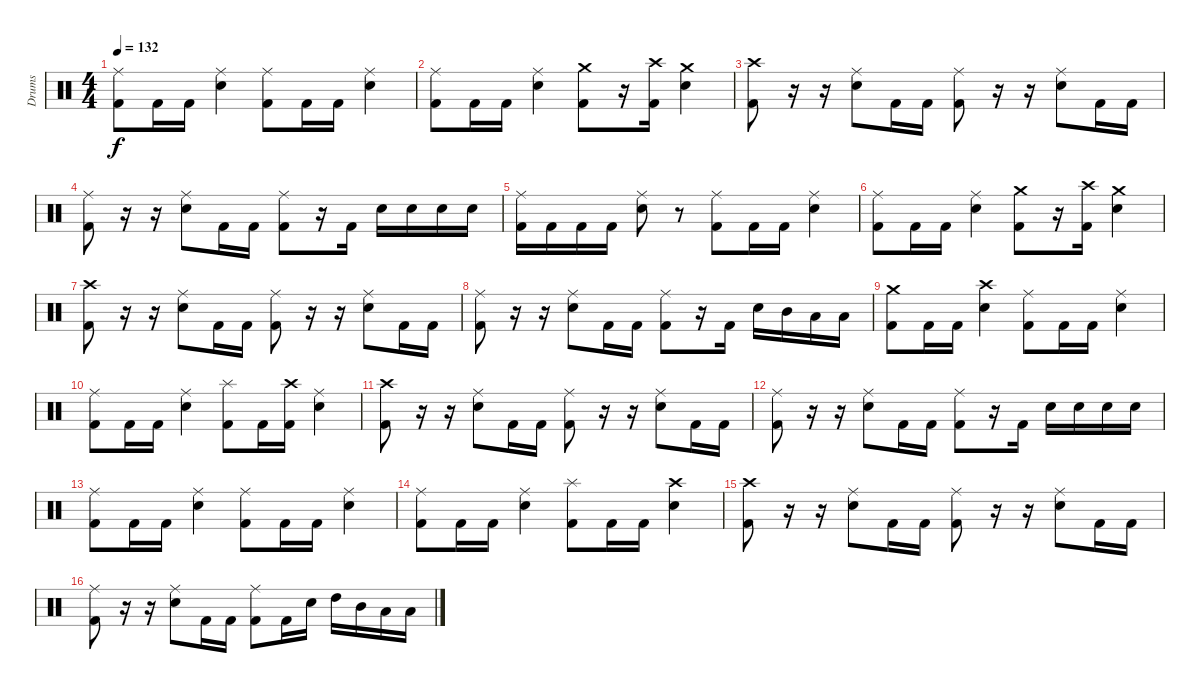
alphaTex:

\track ("Drums" "Drums") {instrument percussion}
\staff {score}
\articulation defaults
\ts (4 4)
\tempo 132
\clef neutral
\ks c
("Ride (middle)" "Kick (hit) 2").8{dy f} "Kick (hit) 2".16 "Kick (hit) 2".16 ("Ride (middle)" "Electric Snare (hit)").4 ("Ride (middle)" "Kick (hit) 2").8 "Kick (hit) 2".16 "Kick (hit) 2".16 ("Ride (middle)" "Electric Snare (hit)").4 |
("Ride (middle)" "Kick (hit) 2").8 "Kick (hit) 2".16 "Kick (hit) 2".16 ("Ride (middle)" "Electric Snare (hit)").4 ("Crash medium (hit)" "Kick (hit) 2").8 r.16 ("Crash high (hit)" "Kick (hit) 2").16 ("Crash medium (hit)" "Electric Snare (hit)").4 |
("Crash high (hit)" "Kick (hit) 2").8 r.16 r.16 ("Ride (middle)" "Electric Snare (hit)").8 "Kick (hit) 2".16 "Kick (hit) 2".16 ("Ride (middle)" "Kick (hit) 2").8 r.16 r.16 ("Ride (middle)" "Electric Snare (hit)").8 "Kick (hit) 2".16 "Kick (hit) 2".16 |
("Ride (middle)" "Kick (hit) 2").8 r.16 r.16 ("Ride (middle)" "Electric Snare (hit)").8 "Kick (hit) 2".16 "Kick (hit) 2".16 ("Ride (middle)" "Kick (hit) 2").8 r.16 "Kick (hit) 2".16 "Electric Snare (hit)".16 "Electric Snare (hit)".16 "Electric Snare (hit)".16 "Electric Snare (hit)".16 |
("Ride (middle)" "Kick (hit) 2").16 "Kick (hit) 2".16 "Kick (hit) 2".16 "Kick (hit) 2".16 ("Ride (middle)" "Electric Snare (hit)").8 r.8 ("Ride (middle)" "Kick (hit) 2").8 "Kick (hit) 2".16 "Kick (hit) 2".16 ("Ride (middle)" "Electric Snare (hit)").4 |
("Ride (middle)" "Kick (hit) 2").8 "Kick (hit) 2".16 "Kick (hit) 2".16 ("Ride (middle)" "Electric Snare (hit)").4 ("Crash medium (hit)" "Kick (hit) 2").8 r.16 ("Crash high (hit)" "Kick (hit) 2").16 ("Crash medium (hit)" "Electric Snare (hit)").4 |
("Crash high (hit)" "Kick (hit) 2").8 r.16 r.16 ("Ride (middle)" "Electric Snare (hit)").8 "Kick (hit) 2".16 "Kick (hit) 2".16 ("Ride (middle)" "Kick (hit) 2").8 r.16 r.16 ("Ride (middle)" "Electric Snare (hit)").8 "Kick (hit) 2".16 "Kick (hit) 2".16 |
("Ride (middle)" "Kick (hit) 2").8 r.16 r.16 ("Ride (middle)" "Electric Snare (hit)").8 "Kick (hit) 2".16 "Kick (hit) 2".16 ("Ride (middle)" "Kick (hit) 2").8 r.16 "Kick (hit) 2".16 "Electric Snare (hit)".16 "Mid Tom (hit)".16 "Low Tom (hit)".16 "Low Floor Tom (hit)".16 |
("Crash medium (hit)" "Kick (hit) 2").8 "Kick (hit) 2".16 "Kick (hit) 2".16 ("Crash high (hit)" "Electric Snare (hit)").4 ("Ride (middle)" "Kick (hit) 2").8 "Kick (hit) 2".16 "Kick (hit) 2".16 ("Ride (middle)" "Electric Snare (hit)").4 |
("Ride (middle)" "Kick (hit) 2").8 "Kick (hit) 2".16 "Kick (hit) 2".16 ("Ride (middle)" "Electric Snare (hit)").4 ("Splash (hit)" "Kick (hit) 2").8 "Kick (hit) 2".16 ("Crash high (hit)" "Kick (hit) 2").16 ("Ride (middle)" "Electric Snare (hit)").4 |
("Crash high (hit)" "Kick (hit) 2").8 r.16 r.16 ("Ride (middle)" "Electric Snare (hit)").8 "Kick (hit) 2".16 "Kick (hit) 2".16 ("Ride (middle)" "Kick (hit) 2").8 r.16 r.16 ("Ride (middle)" "Electric Snare (hit)").8 "Kick (hit) 2".16 "Kick (hit) 2".16 |
("Ride (middle)" "Kick (hit) 2").8 r.16 r.16 ("Ride (middle)" "Electric Snare (hit)").8 "Kick (hit) 2".16 "Kick (hit) 2".16 ("Ride (middle)" "Kick (hit) 2").8 r.16 "Kick (hit) 2".16 "Electric Snare (hit)".16 "Electric Snare (hit)".16 "Electric Snare (hit)".16 "Electric Snare (hit)".16 |
("Ride (middle)" "Kick (hit) 2").8 "Kick (hit) 2".16 "Kick (hit) 2".16 ("Ride (middle)" "Electric Snare (hit)").4 ("Ride (middle)" "Kick (hit) 2").8 "Kick (hit) 2".16 "Kick (hit) 2".16 ("Ride (middle)" "Electric Snare (hit)").4 |
("Ride (middle)" "Kick (hit) 2").8 "Kick (hit) 2".16 "Kick (hit) 2".16 ("Ride (middle)" "Electric Snare (hit)").4 ("Splash (hit)" "Kick (hit) 2").8 "Kick (hit) 2".16 "Kick (hit) 2".16 ("Crash high (hit)" "Electric Snare (hit)").4 |
("Crash high (hit)" "Kick (hit) 2").8 r.16 r.16 ("Ride (middle)" "Electric Snare (hit)").8 "Kick (hit) 2".16 "Kick (hit) 2".16 ("Ride (middle)" "Kick (hit) 2").8 r.16 r.16 ("Ride (middle)" "Electric Snare (hit)").8 "Kick (hit) 2".16 "Kick (hit) 2".16 |
("Ride (middle)" "Kick (hit) 2").8 r.16 r.16 ("Ride (middle)" "Electric Snare (hit)").8 "Kick (hit) 2".16 "Kick (hit) 2".16 ("Ride (middle)" "Kick (hit) 2").8 "Kick (hit) 2".16 "Electric Snare (hit)".16 "High Tom (hit)".16 "Mid Tom (hit)".16 "Low Tom (hit)".16 "Low Floor Tom (hit)".16
